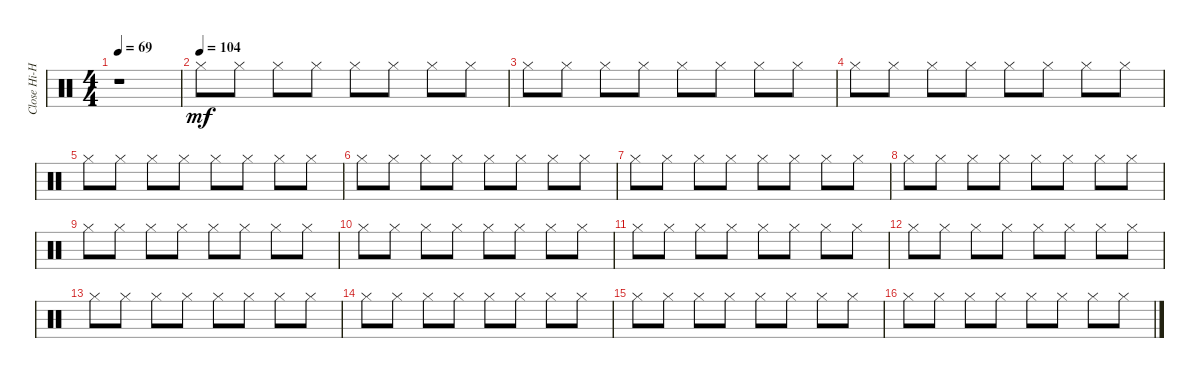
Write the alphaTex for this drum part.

\track ("Close Hi-Hat" "Close Hi-H") {instrument percussion}
\staff {score}
\articulation defaults
\ts (4 4)
\tempo 69
\clef neutral
\ks c
r.1{dy mf} |
\tempo (104)
"Hi-Hat (closed)".8 "Hi-Hat (closed)".8 "Hi-Hat (closed)".8 "Hi-Hat (closed)".8 "Hi-Hat (closed)".8 "Hi-Hat (closed)".8 "Hi-Hat (closed)".8 "Hi-Hat (closed)".8 |
"Hi-Hat (closed)".8 "Hi-Hat (closed)".8 "Hi-Hat (closed)".8 "Hi-Hat (closed)".8 "Hi-Hat (closed)".8 "Hi-Hat (closed)".8 "Hi-Hat (closed)".8 "Hi-Hat (closed)".8 |
"Hi-Hat (closed)".8 "Hi-Hat (closed)".8 "Hi-Hat (closed)".8 "Hi-Hat (closed)".8 "Hi-Hat (closed)".8 "Hi-Hat (closed)".8 "Hi-Hat (closed)".8 "Hi-Hat (closed)".8 |
"Hi-Hat (closed)".8 "Hi-Hat (closed)".8 "Hi-Hat (closed)".8 "Hi-Hat (closed)".8 "Hi-Hat (closed)".8 "Hi-Hat (closed)".8 "Hi-Hat (closed)".8 "Hi-Hat (closed)".8 |
"Hi-Hat (closed)".8 "Hi-Hat (closed)".8 "Hi-Hat (closed)".8 "Hi-Hat (closed)".8 "Hi-Hat (closed)".8 "Hi-Hat (closed)".8 "Hi-Hat (closed)".8 "Hi-Hat (closed)".8 |
"Hi-Hat (closed)".8 "Hi-Hat (closed)".8 "Hi-Hat (closed)".8 "Hi-Hat (closed)".8 "Hi-Hat (closed)".8 "Hi-Hat (closed)".8 "Hi-Hat (closed)".8 "Hi-Hat (closed)".8 |
"Hi-Hat (closed)".8 "Hi-Hat (closed)".8 "Hi-Hat (closed)".8 "Hi-Hat (closed)".8 "Hi-Hat (closed)".8 "Hi-Hat (closed)".8 "Hi-Hat (closed)".8 "Hi-Hat (closed)".8 |
"Hi-Hat (closed)".8 "Hi-Hat (closed)".8 "Hi-Hat (closed)".8 "Hi-Hat (closed)".8 "Hi-Hat (closed)".8 "Hi-Hat (closed)".8 "Hi-Hat (closed)".8 "Hi-Hat (closed)".8 |
"Hi-Hat (closed)".8 "Hi-Hat (closed)".8 "Hi-Hat (closed)".8 "Hi-Hat (closed)".8 "Hi-Hat (closed)".8 "Hi-Hat (closed)".8 "Hi-Hat (closed)".8 "Hi-Hat (closed)".8 |
"Hi-Hat (closed)".8 "Hi-Hat (closed)".8 "Hi-Hat (closed)".8 "Hi-Hat (closed)".8 "Hi-Hat (closed)".8 "Hi-Hat (closed)".8 "Hi-Hat (closed)".8 "Hi-Hat (closed)".8 |
"Hi-Hat (closed)".8 "Hi-Hat (closed)".8 "Hi-Hat (closed)".8 "Hi-Hat (closed)".8 "Hi-Hat (closed)".8 "Hi-Hat (closed)".8 "Hi-Hat (closed)".8 "Hi-Hat (closed)".8 |
"Hi-Hat (closed)".8 "Hi-Hat (closed)".8 "Hi-Hat (closed)".8 "Hi-Hat (closed)".8 "Hi-Hat (closed)".8 "Hi-Hat (closed)".8 "Hi-Hat (closed)".8 "Hi-Hat (closed)".8 |
"Hi-Hat (closed)".8 "Hi-Hat (closed)".8 "Hi-Hat (closed)".8 "Hi-Hat (closed)".8 "Hi-Hat (closed)".8 "Hi-Hat (closed)".8 "Hi-Hat (closed)".8 "Hi-Hat (closed)".8 |
"Hi-Hat (closed)".8 "Hi-Hat (closed)".8 "Hi-Hat (closed)".8 "Hi-Hat (closed)".8 "Hi-Hat (closed)".8 "Hi-Hat (closed)".8 "Hi-Hat (closed)".8 "Hi-Hat (closed)".8 |
"Hi-Hat (closed)".8 "Hi-Hat (closed)".8 "Hi-Hat (closed)".8 "Hi-Hat (closed)".8 "Hi-Hat (closed)".8 "Hi-Hat (closed)".8 "Hi-Hat (closed)".8 "Hi-Hat (closed)".8
